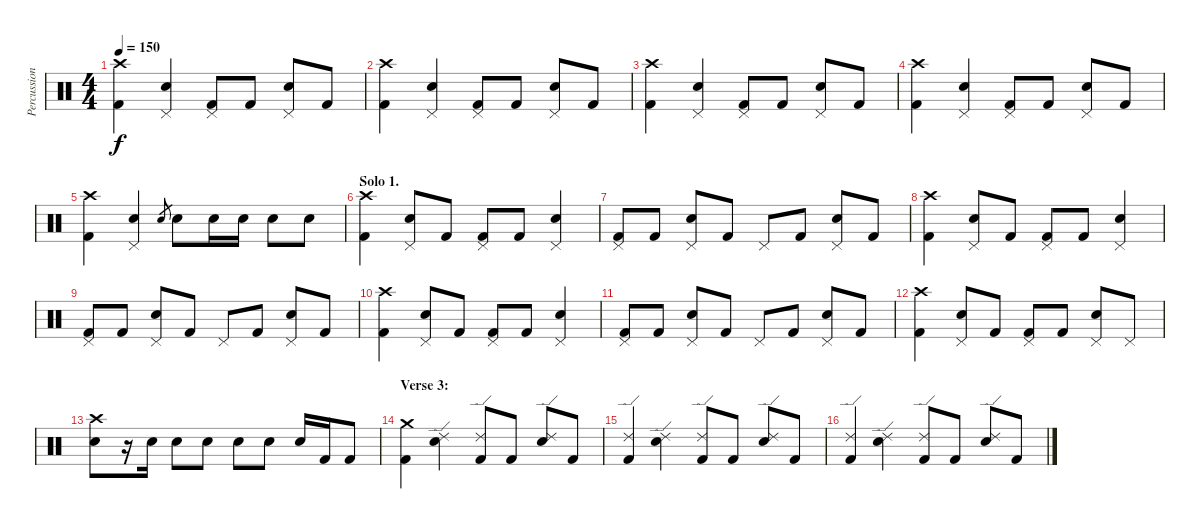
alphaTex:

\track ("Percussion" "Percussion") {instrument percussion}
\staff {score}
\articulation defaults
\ts (4 4)
\tempo 150
\clef neutral
\ks c
("Crash high (hit)" "Kick (hit) 2").4{dy f} ("Pedal Hi-Hat (hit)" "Snare (hit) 2").4 ("Pedal Hi-Hat (hit)" "Kick (hit) 2").8 "Kick (hit) 2".8 ("Pedal Hi-Hat (hit)" "Snare (hit) 2").8 "Kick (hit) 2".8 |
("Crash high (hit)" "Kick (hit) 2").4 ("Pedal Hi-Hat (hit)" "Snare (hit) 2").4 ("Pedal Hi-Hat (hit)" "Kick (hit) 2").8 "Kick (hit) 2".8 ("Pedal Hi-Hat (hit)" "Snare (hit) 2").8 "Kick (hit) 2".8 |
("Crash high (hit)" "Kick (hit) 2").4 ("Pedal Hi-Hat (hit)" "Snare (hit) 2").4 ("Pedal Hi-Hat (hit)" "Kick (hit) 2").8 "Kick (hit) 2".8 ("Pedal Hi-Hat (hit)" "Snare (hit) 2").8 "Kick (hit) 2".8 |
("Crash high (hit)" "Kick (hit) 2").4 ("Pedal Hi-Hat (hit)" "Snare (hit) 2").4 ("Pedal Hi-Hat (hit)" "Kick (hit) 2").8 "Kick (hit) 2".8 ("Pedal Hi-Hat (hit)" "Snare (hit) 2").8 "Kick (hit) 2".8 |
("Crash high (hit)" "Kick (hit) 2").4 ("Pedal Hi-Hat (hit)" "Snare (hit) 2").4 "Snare (hit) 2".8{gr} "Snare (hit) 2".8 "Snare (hit) 2".16 "Snare (hit) 2".16 "Snare (hit) 2".8 "Snare (hit) 2".8 |
\section ("" "Solo 1.")
("Crash high (hit)" "Kick (hit) 2").4 ("Pedal Hi-Hat (hit)" "Snare (hit) 2").8 "Kick (hit) 2".8 ("Pedal Hi-Hat (hit)" "Kick (hit) 2").8 "Kick (hit) 2".8 ("Pedal Hi-Hat (hit)" "Snare (hit) 2").4 |
("Pedal Hi-Hat (hit)" "Kick (hit) 2").8 "Kick (hit) 2".8 ("Pedal Hi-Hat (hit)" "Snare (hit) 2").8 "Kick (hit) 2".8 "Pedal Hi-Hat (hit)".8 "Kick (hit) 2".8 ("Pedal Hi-Hat (hit)" "Snare (hit) 2").8 "Kick (hit) 2".8 |
("Crash high (hit)" "Kick (hit) 2").4 ("Pedal Hi-Hat (hit)" "Snare (hit) 2").8 "Kick (hit) 2".8 ("Pedal Hi-Hat (hit)" "Kick (hit) 2").8 "Kick (hit) 2".8 ("Pedal Hi-Hat (hit)" "Snare (hit) 2").4 |
("Pedal Hi-Hat (hit)" "Kick (hit) 2").8 "Kick (hit) 2".8 ("Pedal Hi-Hat (hit)" "Snare (hit) 2").8 "Kick (hit) 2".8 "Pedal Hi-Hat (hit)".8 "Kick (hit) 2".8 ("Pedal Hi-Hat (hit)" "Snare (hit) 2").8 "Kick (hit) 2".8 |
("Crash high (hit)" "Kick (hit) 2").4 ("Pedal Hi-Hat (hit)" "Snare (hit) 2").8 "Kick (hit) 2".8 ("Pedal Hi-Hat (hit)" "Kick (hit) 2").8 "Kick (hit) 2".8 ("Pedal Hi-Hat (hit)" "Snare (hit) 2").4 |
("Pedal Hi-Hat (hit)" "Kick (hit) 2").8 "Kick (hit) 2".8 ("Pedal Hi-Hat (hit)" "Snare (hit) 2").8 "Kick (hit) 2".8 "Pedal Hi-Hat (hit)".8 "Kick (hit) 2".8 ("Pedal Hi-Hat (hit)" "Snare (hit) 2").8 "Kick (hit) 2".8 |
("Crash high (hit)" "Kick (hit) 2").4 ("Pedal Hi-Hat (hit)" "Snare (hit) 2").8 "Kick (hit) 2".8 ("Pedal Hi-Hat (hit)" "Kick (hit) 2").8 "Kick (hit) 2".8 ("Pedal Hi-Hat (hit)" "Snare (hit) 2").8 "Pedal Hi-Hat (hit)".8 |
("Crash high (hit)" "Snare (hit) 2").8 r.16 "Snare (hit) 2".16 "Snare (hit) 2".8 "Snare (hit) 2".8 "Snare (hit) 2".8 "Snare (hit) 2".8 "Snare (hit) 2".16 "Kick (hit) 2".16 "Kick (hit) 2".8 |
\section ("" "Verse 3:")
("Crash medium (hit)" "Kick (hit) 2").4 ("Ride (edge) 2" "Snare (hit) 2").4 ("Ride (edge) 2" "Kick (hit) 2").8 "Kick (hit) 2".8 ("Ride (edge) 2" "Snare (hit) 2").8 "Kick (hit) 2".8 |
("Ride (edge) 2" "Kick (hit) 2").4 ("Ride (edge) 2" "Snare (hit) 2").4 ("Ride (edge) 2" "Kick (hit) 2").8 "Kick (hit) 2".8 ("Ride (edge) 2" "Snare (hit) 2").8 "Kick (hit) 2".8 |
("Ride (edge) 2" "Kick (hit) 2").4 ("Ride (edge) 2" "Snare (hit) 2").4 ("Ride (edge) 2" "Kick (hit) 2").8 "Kick (hit) 2".8 ("Ride (edge) 2" "Snare (hit) 2").8 "Kick (hit) 2".8
